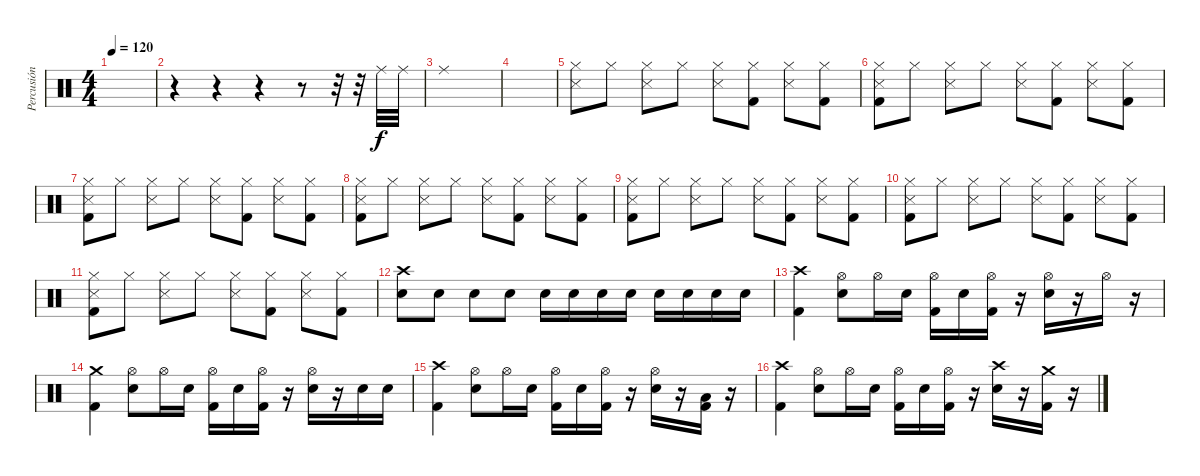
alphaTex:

\track ("Percusión" "Percusión") {instrument percussion}
\staff {score}
\articulation defaults
\ts (4 4)
\tempo 120
\clef neutral
\ks c
|
r.4 r.4 r.4 r.8 r.32 r.32 "Ride (middle)".32 "Ride (middle)".32 |
"Ride (middle)".1 |
|
("Hi-Hat (closed)" "Snare (side stick) 3").8 "Hi-Hat (closed)".8 ("Hi-Hat (closed)" "Snare (side stick) 3").8 "Hi-Hat (closed)".8 ("Hi-Hat (closed)" "Snare (side stick) 3").8 ("Hi-Hat (closed)" "Kick (hit) 2").8 ("Hi-Hat (closed)" "Snare (side stick) 3").8 ("Hi-Hat (closed)" "Kick (hit) 2").8 |
("Hi-Hat (closed)" "Kick (hit) 2" "Snare (side stick) 3").8 "Hi-Hat (closed)".8 ("Hi-Hat (closed)" "Snare (side stick) 3").8 "Hi-Hat (closed)".8 ("Hi-Hat (closed)" "Snare (side stick) 3").8 ("Hi-Hat (closed)" "Kick (hit) 2").8 ("Hi-Hat (closed)" "Snare (side stick) 3").8 ("Hi-Hat (closed)" "Kick (hit) 2").8 |
("Hi-Hat (closed)" "Kick (hit) 2" "Snare (side stick) 3").8 "Hi-Hat (closed)".8 ("Hi-Hat (closed)" "Snare (side stick) 3").8 "Hi-Hat (closed)".8 ("Hi-Hat (closed)" "Snare (side stick) 3").8 ("Hi-Hat (closed)" "Kick (hit) 2").8 ("Hi-Hat (closed)" "Snare (side stick) 3").8 ("Hi-Hat (closed)" "Kick (hit) 2").8 |
("Hi-Hat (closed)" "Kick (hit) 2" "Snare (side stick) 3").8 "Hi-Hat (closed)".8 ("Hi-Hat (closed)" "Snare (side stick) 3").8 "Hi-Hat (closed)".8 ("Hi-Hat (closed)" "Snare (side stick) 3").8 ("Hi-Hat (closed)" "Kick (hit) 2").8 ("Hi-Hat (closed)" "Snare (side stick) 3").8 ("Hi-Hat (closed)" "Kick (hit) 2").8 |
("Hi-Hat (closed)" "Kick (hit) 2" "Snare (side stick) 3").8 "Hi-Hat (closed)".8 ("Hi-Hat (closed)" "Snare (side stick) 3").8 "Hi-Hat (closed)".8 ("Hi-Hat (closed)" "Snare (side stick) 3").8 ("Hi-Hat (closed)" "Kick (hit) 2").8 ("Hi-Hat (closed)" "Snare (side stick) 3").8 ("Hi-Hat (closed)" "Kick (hit) 2").8 |
("Hi-Hat (closed)" "Kick (hit) 2" "Snare (side stick) 3").8 "Hi-Hat (closed)".8 ("Hi-Hat (closed)" "Snare (side stick) 3").8 "Hi-Hat (closed)".8 ("Hi-Hat (closed)" "Snare (side stick) 3").8 ("Hi-Hat (closed)" "Kick (hit) 2").8 ("Hi-Hat (closed)" "Snare (side stick) 3").8 ("Hi-Hat (closed)" "Kick (hit) 2").8 |
("Hi-Hat (closed)" "Kick (hit) 2" "Snare (side stick) 3").8 "Hi-Hat (closed)".8 ("Hi-Hat (closed)" "Snare (side stick) 3").8 "Hi-Hat (closed)".8 ("Hi-Hat (closed)" "Snare (side stick) 3").8 ("Hi-Hat (closed)" "Kick (hit) 2").8 ("Hi-Hat (closed)" "Snare (side stick) 3").8 ("Hi-Hat (closed)" "Kick (hit) 2").8 |
("Crash high (hit)" "Electric Snare (hit)").8 "Electric Snare (hit)".8 "Electric Snare (hit)".8 "Electric Snare (hit)".8 "Electric Snare (hit)".16 "Electric Snare (hit)".16 "Electric Snare (hit)".16 "Electric Snare (hit)".16 "Electric Snare (hit)".16 "Electric Snare (hit)".16 "Electric Snare (hit)".16 "Electric Snare (hit)".16 |
("Crash high (hit)" "Kick (hit) 2").4 ("Hi-Hat (open)" "Electric Snare (hit)").8 "Hi-Hat (open)".16 "Electric Snare (hit)".16 ("Hi-Hat (open)" "Kick (hit) 2").16 "Electric Snare (hit)".16 ("Hi-Hat (open)" "Kick (hit) 2").16 r.16 ("Hi-Hat (open)" "Electric Snare (hit)").16 r.16 "Hi-Hat (open)".16 r.16 |
("Crash medium (hit)" "Kick (hit) 2").4 ("Hi-Hat (open)" "Electric Snare (hit)").8 "Hi-Hat (open)".16 "Electric Snare (hit)".16 ("Hi-Hat (open)" "Kick (hit) 2").16 "Electric Snare (hit)".16 ("Hi-Hat (open)" "Kick (hit) 2").16 r.16 ("Hi-Hat (open)" "Electric Snare (hit)").16 r.16 "Electric Snare (hit)".16 "Electric Snare (hit)".16 |
("Crash high (hit)" "Kick (hit) 2").4 ("Hi-Hat (open)" "Electric Snare (hit)").8 "Hi-Hat (open)".16 "Electric Snare (hit)".16 ("Hi-Hat (open)" "Kick (hit) 2").16 "Electric Snare (hit)".16 ("Hi-Hat (open)" "Kick (hit) 2").16 r.16 ("Hi-Hat (open)" "Electric Snare (hit)").16 r.16 ("Low Tom (hit)" "Kick (hit) 2").16 r.16 |
("Crash high (hit)" "Kick (hit) 2").4 ("Hi-Hat (open)" "Electric Snare (hit)").8 "Hi-Hat (open)".16 "Electric Snare (hit)".16 ("Hi-Hat (open)" "Kick (hit) 2").16 "Electric Snare (hit)".16 ("Hi-Hat (open)" "Kick (hit) 2").16 r.16 ("Crash high (hit)" "Electric Snare (hit)").16 r.16 ("Crash medium (hit)" "Kick (hit) 2").16 r.16
